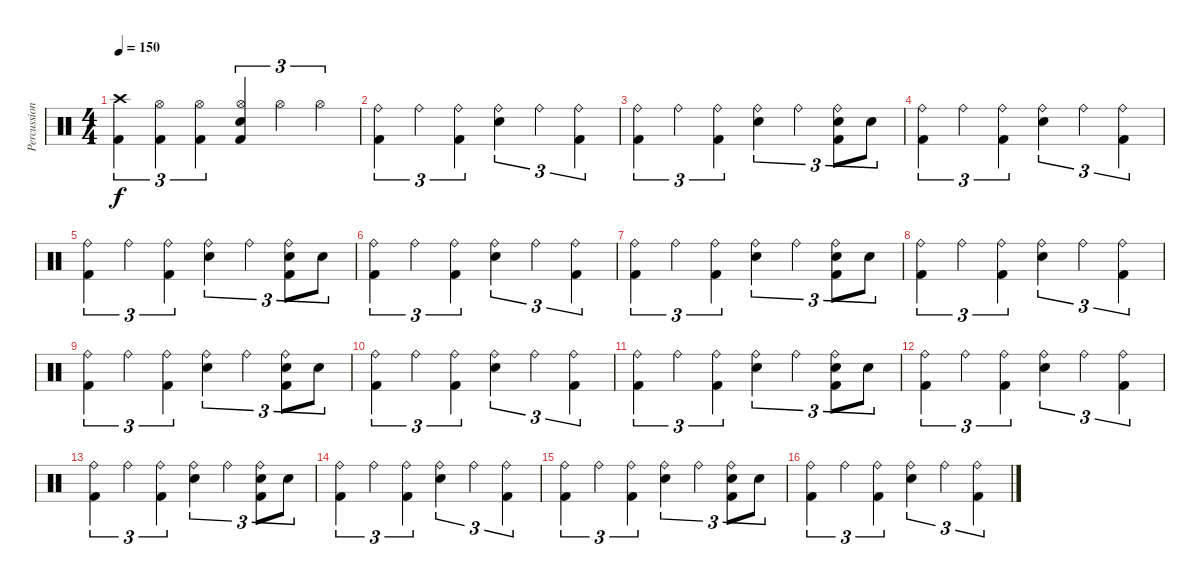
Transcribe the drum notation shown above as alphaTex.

\track ("Percussion" "Percussion") {instrument percussion}
\staff {score}
\articulation defaults
\ts (4 4)
\tempo 150
\clef neutral
\ks c
("Crash high (hit)" "Kick (hit) 2").4{tu (3 2) dy f} ("Hi-Hat (open)" "Kick (hit) 2").4{tu (3 2)} ("Hi-Hat (open)" "Kick (hit) 2").4{tu (3 2)} ("Hi-Hat (open)" "Snare (hit) 2" "Kick (hit) 2").4{tu (3 2)} "Hi-Hat (open)".4{tu (3 2)} "Hi-Hat (open)".4{tu (3 2)} |
("Ride (bell)" "Kick (hit) 2").4{tu (3 2)} "Ride (bell)".4{tu (3 2)} ("Ride (bell)" "Kick (hit) 2").4{tu (3 2)} ("Ride (bell)" "Snare (hit) 2").4{tu (3 2)} "Ride (bell)".4{tu (3 2)} ("Ride (bell)" "Kick (hit) 2").4{tu (3 2)} |
("Ride (bell)" "Kick (hit) 2").4{tu (3 2)} "Ride (bell)".4{tu (3 2)} ("Ride (bell)" "Kick (hit) 2").4{tu (3 2)} ("Ride (bell)" "Snare (hit) 2").4{tu (3 2)} "Ride (bell)".4{tu (3 2)} ("Ride (bell)" "Snare (hit) 2" "Kick (hit) 2").8{tu (3 2)} "Snare (hit) 2".8{tu (3 2)} |
("Ride (bell)" "Kick (hit) 2").4{tu (3 2)} "Ride (bell)".4{tu (3 2)} ("Ride (bell)" "Kick (hit) 2").4{tu (3 2)} ("Ride (bell)" "Snare (hit) 2").4{tu (3 2)} "Ride (bell)".4{tu (3 2)} ("Ride (bell)" "Kick (hit) 2").4{tu (3 2)} |
("Ride (bell)" "Kick (hit) 2").4{tu (3 2)} "Ride (bell)".4{tu (3 2)} ("Ride (bell)" "Kick (hit) 2").4{tu (3 2)} ("Ride (bell)" "Snare (hit) 2").4{tu (3 2)} "Ride (bell)".4{tu (3 2)} ("Ride (bell)" "Snare (hit) 2" "Kick (hit) 2").8{tu (3 2)} "Snare (hit) 2".8{tu (3 2)} |
("Ride (bell)" "Kick (hit) 2").4{tu (3 2)} "Ride (bell)".4{tu (3 2)} ("Ride (bell)" "Kick (hit) 2").4{tu (3 2)} ("Ride (bell)" "Snare (hit) 2").4{tu (3 2)} "Ride (bell)".4{tu (3 2)} ("Ride (bell)" "Kick (hit) 2").4{tu (3 2)} |
("Ride (bell)" "Kick (hit) 2").4{tu (3 2)} "Ride (bell)".4{tu (3 2)} ("Ride (bell)" "Kick (hit) 2").4{tu (3 2)} ("Ride (bell)" "Snare (hit) 2").4{tu (3 2)} "Ride (bell)".4{tu (3 2)} ("Ride (bell)" "Snare (hit) 2" "Kick (hit) 2").8{tu (3 2)} "Snare (hit) 2".8{tu (3 2)} |
("Ride (bell)" "Kick (hit) 2").4{tu (3 2)} "Ride (bell)".4{tu (3 2)} ("Ride (bell)" "Kick (hit) 2").4{tu (3 2)} ("Ride (bell)" "Snare (hit) 2").4{tu (3 2)} "Ride (bell)".4{tu (3 2)} ("Ride (bell)" "Kick (hit) 2").4{tu (3 2)} |
("Ride (bell)" "Kick (hit) 2").4{tu (3 2)} "Ride (bell)".4{tu (3 2)} ("Ride (bell)" "Kick (hit) 2").4{tu (3 2)} ("Ride (bell)" "Snare (hit) 2").4{tu (3 2)} "Ride (bell)".4{tu (3 2)} ("Ride (bell)" "Snare (hit) 2" "Kick (hit) 2").8{tu (3 2)} "Snare (hit) 2".8{tu (3 2)} |
("Ride (bell)" "Kick (hit) 2").4{tu (3 2)} "Ride (bell)".4{tu (3 2)} ("Ride (bell)" "Kick (hit) 2").4{tu (3 2)} ("Ride (bell)" "Snare (hit) 2").4{tu (3 2)} "Ride (bell)".4{tu (3 2)} ("Ride (bell)" "Kick (hit) 2").4{tu (3 2)} |
("Ride (bell)" "Kick (hit) 2").4{tu (3 2)} "Ride (bell)".4{tu (3 2)} ("Ride (bell)" "Kick (hit) 2").4{tu (3 2)} ("Ride (bell)" "Snare (hit) 2").4{tu (3 2)} "Ride (bell)".4{tu (3 2)} ("Ride (bell)" "Snare (hit) 2" "Kick (hit) 2").8{tu (3 2)} "Snare (hit) 2".8{tu (3 2)} |
("Ride (bell)" "Kick (hit) 2").4{tu (3 2)} "Ride (bell)".4{tu (3 2)} ("Ride (bell)" "Kick (hit) 2").4{tu (3 2)} ("Ride (bell)" "Snare (hit) 2").4{tu (3 2)} "Ride (bell)".4{tu (3 2)} ("Ride (bell)" "Kick (hit) 2").4{tu (3 2)} |
("Ride (bell)" "Kick (hit) 2").4{tu (3 2)} "Ride (bell)".4{tu (3 2)} ("Ride (bell)" "Kick (hit) 2").4{tu (3 2)} ("Ride (bell)" "Snare (hit) 2").4{tu (3 2)} "Ride (bell)".4{tu (3 2)} ("Ride (bell)" "Snare (hit) 2" "Kick (hit) 2").8{tu (3 2)} "Snare (hit) 2".8{tu (3 2)} |
("Ride (bell)" "Kick (hit) 2").4{tu (3 2)} "Ride (bell)".4{tu (3 2)} ("Ride (bell)" "Kick (hit) 2").4{tu (3 2)} ("Ride (bell)" "Snare (hit) 2").4{tu (3 2)} "Ride (bell)".4{tu (3 2)} ("Ride (bell)" "Kick (hit) 2").4{tu (3 2)} |
("Ride (bell)" "Kick (hit) 2").4{tu (3 2)} "Ride (bell)".4{tu (3 2)} ("Ride (bell)" "Kick (hit) 2").4{tu (3 2)} ("Ride (bell)" "Snare (hit) 2").4{tu (3 2)} "Ride (bell)".4{tu (3 2)} ("Ride (bell)" "Snare (hit) 2" "Kick (hit) 2").8{tu (3 2)} "Snare (hit) 2".8{tu (3 2)} |
("Ride (bell)" "Kick (hit) 2").4{tu (3 2)} "Ride (bell)".4{tu (3 2)} ("Ride (bell)" "Kick (hit) 2").4{tu (3 2)} ("Ride (bell)" "Snare (hit) 2").4{tu (3 2)} "Ride (bell)".4{tu (3 2)} ("Ride (bell)" "Kick (hit) 2").4{tu (3 2)}
